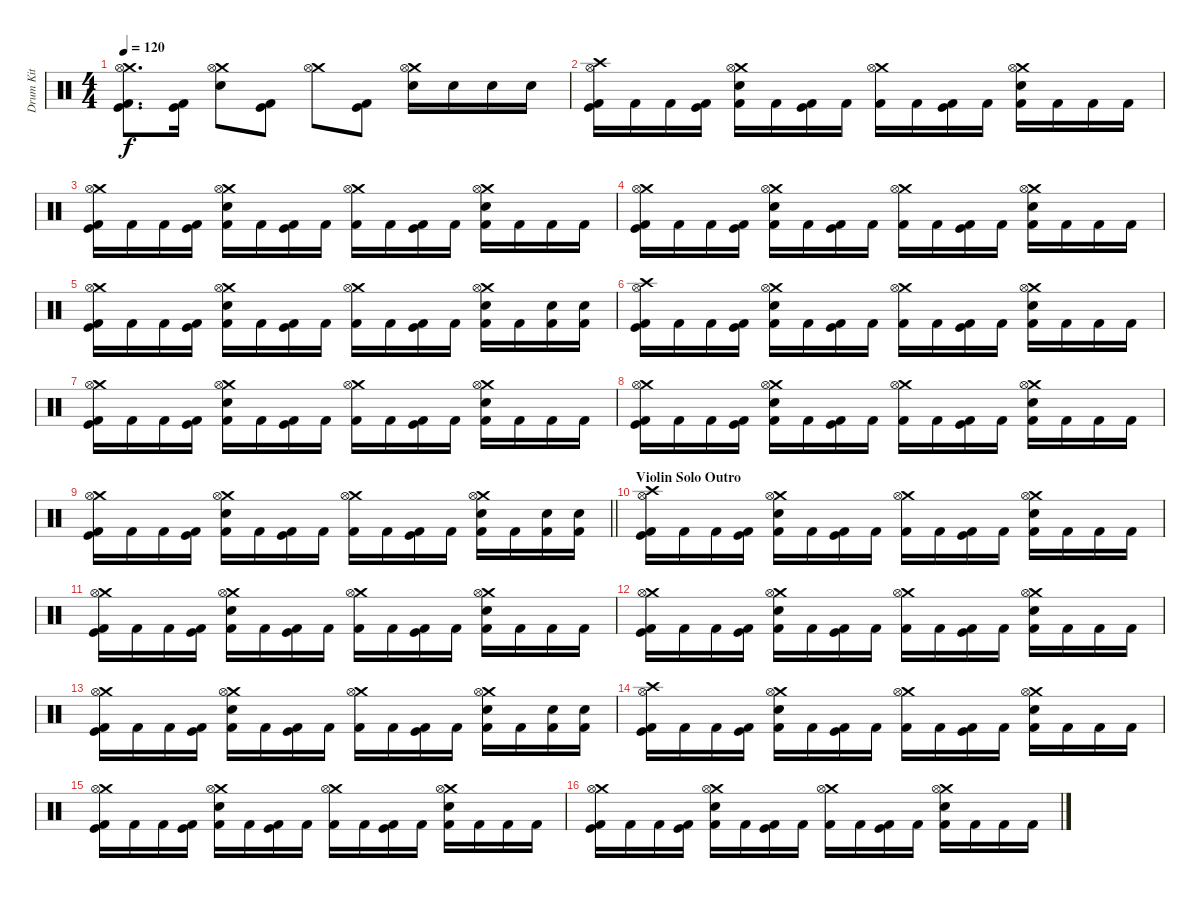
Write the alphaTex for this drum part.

\track ("Drum Kit" "Drum Kit") {instrument percussion}
\staff {score}
\articulation defaults
\ts (4 4)
\tempo 120
\clef neutral
\ks c
("Crash medium (hit)" "Hi-Hat (open)" "Kick (hit)" "Kick (hit) 2").8{d dy f} ("Kick (hit)" "Kick (hit) 2").16 ("Crash medium (hit)" "Hi-Hat (open)" "Electric Snare (hit)").8 ("Kick (hit)" "Kick (hit) 2").8 ("Crash medium (hit)" "Hi-Hat (open)").8 ("Kick (hit)" "Kick (hit) 2").8 ("Crash medium (hit)" "Hi-Hat (open)" "Electric Snare (hit)").16 "Electric Snare (hit)".16 "Electric Snare (hit)".16 "Electric Snare (hit)".16 |
("Crash high (hit)" "Hi-Hat (open)" "Kick (hit)" "Kick (hit) 2").16 "Kick (hit) 2".16 "Kick (hit) 2".16 ("Kick (hit)" "Kick (hit) 2").16 ("Crash medium (hit)" "Hi-Hat (open)" "Electric Snare (hit)" "Kick (hit) 2").16 "Kick (hit) 2".16 ("Kick (hit)" "Kick (hit) 2").16 "Kick (hit) 2".16 ("Crash medium (hit)" "Hi-Hat (open)" "Kick (hit) 2").16 "Kick (hit) 2".16 ("Kick (hit)" "Kick (hit) 2").16 "Kick (hit) 2".16 ("Crash medium (hit)" "Hi-Hat (open)" "Electric Snare (hit)" "Kick (hit) 2").16 "Kick (hit) 2".16 "Kick (hit) 2".16 "Kick (hit) 2".16 |
("Crash medium (hit)" "Hi-Hat (open)" "Kick (hit)" "Kick (hit) 2").16 "Kick (hit) 2".16 "Kick (hit) 2".16 ("Kick (hit)" "Kick (hit) 2").16 ("Crash medium (hit)" "Hi-Hat (open)" "Electric Snare (hit)" "Kick (hit) 2").16 "Kick (hit) 2".16 ("Kick (hit)" "Kick (hit) 2").16 "Kick (hit) 2".16 ("Crash medium (hit)" "Hi-Hat (open)" "Kick (hit) 2").16 "Kick (hit) 2".16 ("Kick (hit)" "Kick (hit) 2").16 "Kick (hit) 2".16 ("Crash medium (hit)" "Hi-Hat (open)" "Electric Snare (hit)" "Kick (hit) 2").16 "Kick (hit) 2".16 "Kick (hit) 2".16 "Kick (hit) 2".16 |
("Crash medium (hit)" "Hi-Hat (open)" "Kick (hit)" "Kick (hit) 2").16 "Kick (hit) 2".16 "Kick (hit) 2".16 ("Kick (hit)" "Kick (hit) 2").16 ("Crash medium (hit)" "Hi-Hat (open)" "Electric Snare (hit)" "Kick (hit) 2").16 "Kick (hit) 2".16 ("Kick (hit)" "Kick (hit) 2").16 "Kick (hit) 2".16 ("Crash medium (hit)" "Hi-Hat (open)" "Kick (hit) 2").16 "Kick (hit) 2".16 ("Kick (hit)" "Kick (hit) 2").16 "Kick (hit) 2".16 ("Crash medium (hit)" "Hi-Hat (open)" "Electric Snare (hit)" "Kick (hit) 2").16 "Kick (hit) 2".16 "Kick (hit) 2".16 "Kick (hit) 2".16 |
("Crash medium (hit)" "Hi-Hat (open)" "Kick (hit)" "Kick (hit) 2").16 "Kick (hit) 2".16 "Kick (hit) 2".16 ("Kick (hit)" "Kick (hit) 2").16 ("Crash medium (hit)" "Hi-Hat (open)" "Electric Snare (hit)" "Kick (hit) 2").16 "Kick (hit) 2".16 ("Kick (hit)" "Kick (hit) 2").16 "Kick (hit) 2".16 ("Crash medium (hit)" "Hi-Hat (open)" "Kick (hit) 2").16 "Kick (hit) 2".16 ("Kick (hit)" "Kick (hit) 2").16 "Kick (hit) 2".16 ("Crash medium (hit)" "Hi-Hat (open)" "Electric Snare (hit)" "Kick (hit) 2").16 "Kick (hit) 2".16 ("Electric Snare (hit)" "Kick (hit) 2").16 ("Electric Snare (hit)" "Kick (hit) 2").16 |
("Crash high (hit)" "Hi-Hat (open)" "Kick (hit)" "Kick (hit) 2").16 "Kick (hit) 2".16 "Kick (hit) 2".16 ("Kick (hit)" "Kick (hit) 2").16 ("Crash medium (hit)" "Hi-Hat (open)" "Electric Snare (hit)" "Kick (hit) 2").16 "Kick (hit) 2".16 ("Kick (hit)" "Kick (hit) 2").16 "Kick (hit) 2".16 ("Crash medium (hit)" "Hi-Hat (open)" "Kick (hit) 2").16 "Kick (hit) 2".16 ("Kick (hit)" "Kick (hit) 2").16 "Kick (hit) 2".16 ("Crash medium (hit)" "Hi-Hat (open)" "Electric Snare (hit)" "Kick (hit) 2").16 "Kick (hit) 2".16 "Kick (hit) 2".16 "Kick (hit) 2".16 |
("Crash medium (hit)" "Hi-Hat (open)" "Kick (hit)" "Kick (hit) 2").16 "Kick (hit) 2".16 "Kick (hit) 2".16 ("Kick (hit)" "Kick (hit) 2").16 ("Crash medium (hit)" "Hi-Hat (open)" "Electric Snare (hit)" "Kick (hit) 2").16 "Kick (hit) 2".16 ("Kick (hit)" "Kick (hit) 2").16 "Kick (hit) 2".16 ("Crash medium (hit)" "Hi-Hat (open)" "Kick (hit) 2").16 "Kick (hit) 2".16 ("Kick (hit)" "Kick (hit) 2").16 "Kick (hit) 2".16 ("Crash medium (hit)" "Hi-Hat (open)" "Electric Snare (hit)" "Kick (hit) 2").16 "Kick (hit) 2".16 "Kick (hit) 2".16 "Kick (hit) 2".16 |
("Crash medium (hit)" "Hi-Hat (open)" "Kick (hit)" "Kick (hit) 2").16 "Kick (hit) 2".16 "Kick (hit) 2".16 ("Kick (hit)" "Kick (hit) 2").16 ("Crash medium (hit)" "Hi-Hat (open)" "Electric Snare (hit)" "Kick (hit) 2").16 "Kick (hit) 2".16 ("Kick (hit)" "Kick (hit) 2").16 "Kick (hit) 2".16 ("Crash medium (hit)" "Hi-Hat (open)" "Kick (hit) 2").16 "Kick (hit) 2".16 ("Kick (hit)" "Kick (hit) 2").16 "Kick (hit) 2".16 ("Crash medium (hit)" "Hi-Hat (open)" "Electric Snare (hit)" "Kick (hit) 2").16 "Kick (hit) 2".16 "Kick (hit) 2".16 "Kick (hit) 2".16 |
\barLineRight lightlight
("Crash medium (hit)" "Hi-Hat (open)" "Kick (hit)" "Kick (hit) 2").16 "Kick (hit) 2".16 "Kick (hit) 2".16 ("Kick (hit)" "Kick (hit) 2").16 ("Crash medium (hit)" "Hi-Hat (open)" "Electric Snare (hit)" "Kick (hit) 2").16 "Kick (hit) 2".16 ("Kick (hit)" "Kick (hit) 2").16 "Kick (hit) 2".16 ("Crash medium (hit)" "Hi-Hat (open)" "Kick (hit) 2").16 "Kick (hit) 2".16 ("Kick (hit)" "Kick (hit) 2").16 "Kick (hit) 2".16 ("Crash medium (hit)" "Hi-Hat (open)" "Electric Snare (hit)" "Kick (hit) 2").16 "Kick (hit) 2".16 ("Electric Snare (hit)" "Kick (hit) 2").16 ("Electric Snare (hit)" "Kick (hit) 2").16 |
\section ("" "Violin Solo Outro")
("Crash high (hit)" "Hi-Hat (open)" "Kick (hit)" "Kick (hit) 2").16 "Kick (hit) 2".16 "Kick (hit) 2".16 ("Kick (hit)" "Kick (hit) 2").16 ("Crash medium (hit)" "Hi-Hat (open)" "Electric Snare (hit)" "Kick (hit) 2").16 "Kick (hit) 2".16 ("Kick (hit)" "Kick (hit) 2").16 "Kick (hit) 2".16 ("Crash medium (hit)" "Hi-Hat (open)" "Kick (hit) 2").16 "Kick (hit) 2".16 ("Kick (hit)" "Kick (hit) 2").16 "Kick (hit) 2".16 ("Crash medium (hit)" "Hi-Hat (open)" "Electric Snare (hit)" "Kick (hit) 2").16 "Kick (hit) 2".16 "Kick (hit) 2".16 "Kick (hit) 2".16 |
("Crash medium (hit)" "Hi-Hat (open)" "Kick (hit)" "Kick (hit) 2").16 "Kick (hit) 2".16 "Kick (hit) 2".16 ("Kick (hit)" "Kick (hit) 2").16 ("Crash medium (hit)" "Hi-Hat (open)" "Electric Snare (hit)" "Kick (hit) 2").16 "Kick (hit) 2".16 ("Kick (hit)" "Kick (hit) 2").16 "Kick (hit) 2".16 ("Crash medium (hit)" "Hi-Hat (open)" "Kick (hit) 2").16 "Kick (hit) 2".16 ("Kick (hit)" "Kick (hit) 2").16 "Kick (hit) 2".16 ("Crash medium (hit)" "Hi-Hat (open)" "Electric Snare (hit)" "Kick (hit) 2").16 "Kick (hit) 2".16 "Kick (hit) 2".16 "Kick (hit) 2".16 |
("Crash medium (hit)" "Hi-Hat (open)" "Kick (hit)" "Kick (hit) 2").16 "Kick (hit) 2".16 "Kick (hit) 2".16 ("Kick (hit)" "Kick (hit) 2").16 ("Crash medium (hit)" "Hi-Hat (open)" "Electric Snare (hit)" "Kick (hit) 2").16 "Kick (hit) 2".16 ("Kick (hit)" "Kick (hit) 2").16 "Kick (hit) 2".16 ("Crash medium (hit)" "Hi-Hat (open)" "Kick (hit) 2").16 "Kick (hit) 2".16 ("Kick (hit)" "Kick (hit) 2").16 "Kick (hit) 2".16 ("Crash medium (hit)" "Hi-Hat (open)" "Electric Snare (hit)" "Kick (hit) 2").16 "Kick (hit) 2".16 "Kick (hit) 2".16 "Kick (hit) 2".16 |
("Crash medium (hit)" "Hi-Hat (open)" "Kick (hit)" "Kick (hit) 2").16 "Kick (hit) 2".16 "Kick (hit) 2".16 ("Kick (hit)" "Kick (hit) 2").16 ("Crash medium (hit)" "Hi-Hat (open)" "Electric Snare (hit)" "Kick (hit) 2").16 "Kick (hit) 2".16 ("Kick (hit)" "Kick (hit) 2").16 "Kick (hit) 2".16 ("Crash medium (hit)" "Hi-Hat (open)" "Kick (hit) 2").16 "Kick (hit) 2".16 ("Kick (hit)" "Kick (hit) 2").16 "Kick (hit) 2".16 ("Crash medium (hit)" "Hi-Hat (open)" "Electric Snare (hit)" "Kick (hit) 2").16 "Kick (hit) 2".16 ("Electric Snare (hit)" "Kick (hit) 2").16 ("Electric Snare (hit)" "Kick (hit) 2").16 |
("Crash high (hit)" "Hi-Hat (open)" "Kick (hit)" "Kick (hit) 2").16 "Kick (hit) 2".16 "Kick (hit) 2".16 ("Kick (hit)" "Kick (hit) 2").16 ("Crash medium (hit)" "Hi-Hat (open)" "Electric Snare (hit)" "Kick (hit) 2").16 "Kick (hit) 2".16 ("Kick (hit)" "Kick (hit) 2").16 "Kick (hit) 2".16 ("Crash medium (hit)" "Hi-Hat (open)" "Kick (hit) 2").16 "Kick (hit) 2".16 ("Kick (hit)" "Kick (hit) 2").16 "Kick (hit) 2".16 ("Crash medium (hit)" "Hi-Hat (open)" "Electric Snare (hit)" "Kick (hit) 2").16 "Kick (hit) 2".16 "Kick (hit) 2".16 "Kick (hit) 2".16 |
("Crash medium (hit)" "Hi-Hat (open)" "Kick (hit)" "Kick (hit) 2").16 "Kick (hit) 2".16 "Kick (hit) 2".16 ("Kick (hit)" "Kick (hit) 2").16 ("Crash medium (hit)" "Hi-Hat (open)" "Electric Snare (hit)" "Kick (hit) 2").16 "Kick (hit) 2".16 ("Kick (hit)" "Kick (hit) 2").16 "Kick (hit) 2".16 ("Crash medium (hit)" "Hi-Hat (open)" "Kick (hit) 2").16 "Kick (hit) 2".16 ("Kick (hit)" "Kick (hit) 2").16 "Kick (hit) 2".16 ("Crash medium (hit)" "Hi-Hat (open)" "Electric Snare (hit)" "Kick (hit) 2").16 "Kick (hit) 2".16 "Kick (hit) 2".16 "Kick (hit) 2".16 |
("Crash medium (hit)" "Hi-Hat (open)" "Kick (hit)" "Kick (hit) 2").16 "Kick (hit) 2".16 "Kick (hit) 2".16 ("Kick (hit)" "Kick (hit) 2").16 ("Crash medium (hit)" "Hi-Hat (open)" "Electric Snare (hit)" "Kick (hit) 2").16 "Kick (hit) 2".16 ("Kick (hit)" "Kick (hit) 2").16 "Kick (hit) 2".16 ("Crash medium (hit)" "Hi-Hat (open)" "Kick (hit) 2").16 "Kick (hit) 2".16 ("Kick (hit)" "Kick (hit) 2").16 "Kick (hit) 2".16 ("Crash medium (hit)" "Hi-Hat (open)" "Electric Snare (hit)" "Kick (hit) 2").16 "Kick (hit) 2".16 "Kick (hit) 2".16 "Kick (hit) 2".16
